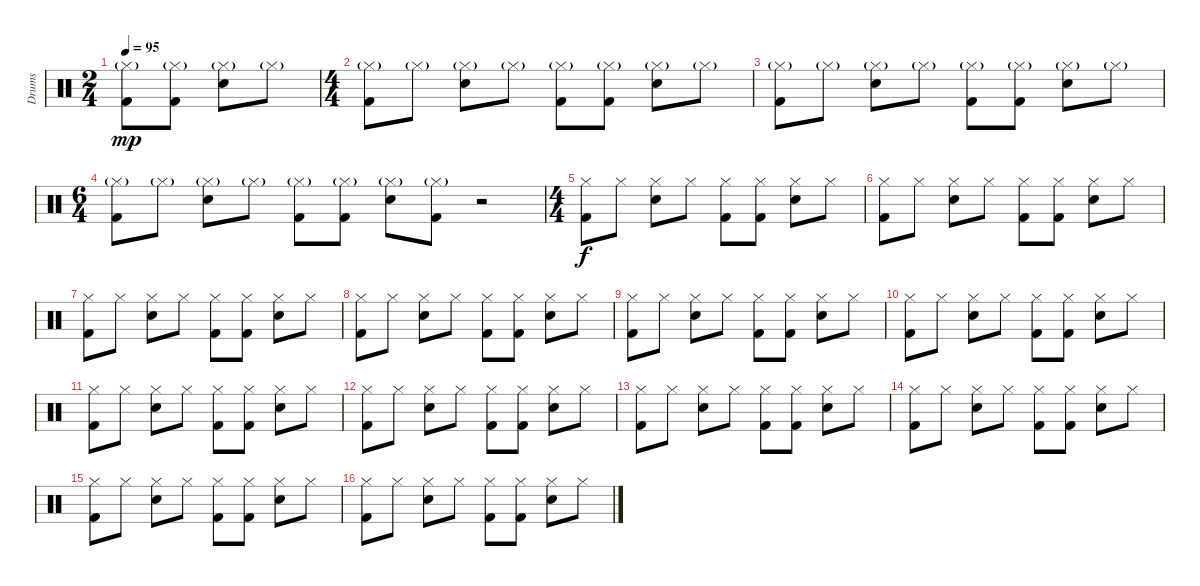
\track ("Drums" "Drums") {instrument percussion}
\staff {score}
\articulation defaults
\ts (2 4)
\tempo 95
\clef neutral
\ks c
("Hi-Hat (closed)"{g} "Kick (hit) 2").8{dy mp} ("Hi-Hat (closed)"{g} "Kick (hit) 2").8 ("Hi-Hat (closed)"{g} "Snare (hit) 2").8 "Hi-Hat (closed)"{g}.8 |
\ts (4 4)
("Hi-Hat (closed)"{g} "Kick (hit) 2").8 "Hi-Hat (closed)"{g}.8 ("Hi-Hat (closed)"{g} "Snare (hit) 2").8 "Hi-Hat (closed)"{g}.8 ("Hi-Hat (closed)"{g} "Kick (hit) 2").8 ("Hi-Hat (closed)"{g} "Kick (hit) 2").8 ("Hi-Hat (closed)"{g} "Snare (hit) 2").8 "Hi-Hat (closed)"{g}.8 |
("Hi-Hat (closed)"{g} "Kick (hit) 2").8 "Hi-Hat (closed)"{g}.8 ("Hi-Hat (closed)"{g} "Snare (hit) 2").8 "Hi-Hat (closed)"{g}.8 ("Hi-Hat (closed)"{g} "Kick (hit) 2").8 ("Hi-Hat (closed)"{g} "Kick (hit) 2").8 ("Hi-Hat (closed)"{g} "Snare (hit) 2").8 "Hi-Hat (closed)"{g}.8 |
\ts (6 4)
("Hi-Hat (closed)"{g} "Kick (hit) 2").8 "Hi-Hat (closed)"{g}.8 ("Hi-Hat (closed)"{g} "Snare (hit) 2").8 "Hi-Hat (closed)"{g}.8 ("Hi-Hat (closed)"{g} "Kick (hit) 2").8 ("Hi-Hat (closed)"{g} "Kick (hit) 2").8 ("Hi-Hat (closed)"{g} "Snare (hit) 2").8 ("Hi-Hat (closed)"{g} "Kick (hit) 2").8 r.2 |
\ts (4 4)
("Hi-Hat (closed)" "Kick (hit) 2").8{dy f} "Hi-Hat (closed)".8 ("Hi-Hat (closed)" "Snare (hit) 2").8 "Hi-Hat (closed)".8 ("Hi-Hat (closed)" "Kick (hit) 2").8 ("Hi-Hat (closed)" "Kick (hit) 2").8 ("Hi-Hat (closed)" "Snare (hit) 2").8 "Hi-Hat (closed)".8 |
("Hi-Hat (closed)" "Kick (hit) 2").8 "Hi-Hat (closed)".8 ("Hi-Hat (closed)" "Snare (hit) 2").8 "Hi-Hat (closed)".8 ("Hi-Hat (closed)" "Kick (hit) 2").8 ("Hi-Hat (closed)" "Kick (hit) 2").8 ("Hi-Hat (closed)" "Snare (hit) 2").8 "Hi-Hat (closed)".8 |
("Hi-Hat (closed)" "Kick (hit) 2").8 "Hi-Hat (closed)".8 ("Hi-Hat (closed)" "Snare (hit) 2").8 "Hi-Hat (closed)".8 ("Hi-Hat (closed)" "Kick (hit) 2").8 ("Hi-Hat (closed)" "Kick (hit) 2").8 ("Hi-Hat (closed)" "Snare (hit) 2").8 "Hi-Hat (closed)".8 |
("Hi-Hat (closed)" "Kick (hit) 2").8 "Hi-Hat (closed)".8 ("Hi-Hat (closed)" "Snare (hit) 2").8 "Hi-Hat (closed)".8 ("Hi-Hat (closed)" "Kick (hit) 2").8 ("Hi-Hat (closed)" "Kick (hit) 2").8 ("Hi-Hat (closed)" "Snare (hit) 2").8 "Hi-Hat (closed)".8 |
("Hi-Hat (closed)" "Kick (hit) 2").8 "Hi-Hat (closed)".8 ("Hi-Hat (closed)" "Snare (hit) 2").8 "Hi-Hat (closed)".8 ("Hi-Hat (closed)" "Kick (hit) 2").8 ("Hi-Hat (closed)" "Kick (hit) 2").8 ("Hi-Hat (closed)" "Snare (hit) 2").8 "Hi-Hat (closed)".8 |
("Hi-Hat (closed)" "Kick (hit) 2").8 "Hi-Hat (closed)".8 ("Hi-Hat (closed)" "Snare (hit) 2").8 "Hi-Hat (closed)".8 ("Hi-Hat (closed)" "Kick (hit) 2").8 ("Hi-Hat (closed)" "Kick (hit) 2").8 ("Hi-Hat (closed)" "Snare (hit) 2").8 "Hi-Hat (closed)".8 |
("Hi-Hat (closed)" "Kick (hit) 2").8 "Hi-Hat (closed)".8 ("Hi-Hat (closed)" "Snare (hit) 2").8 "Hi-Hat (closed)".8 ("Hi-Hat (closed)" "Kick (hit) 2").8 ("Hi-Hat (closed)" "Kick (hit) 2").8 ("Hi-Hat (closed)" "Snare (hit) 2").8 "Hi-Hat (closed)".8 |
("Hi-Hat (closed)" "Kick (hit) 2").8 "Hi-Hat (closed)".8 ("Hi-Hat (closed)" "Snare (hit) 2").8 "Hi-Hat (closed)".8 ("Hi-Hat (closed)" "Kick (hit) 2").8 ("Hi-Hat (closed)" "Kick (hit) 2").8 ("Hi-Hat (closed)" "Snare (hit) 2").8 "Hi-Hat (closed)".8 |
("Hi-Hat (closed)" "Kick (hit) 2").8 "Hi-Hat (closed)".8 ("Hi-Hat (closed)" "Snare (hit) 2").8 "Hi-Hat (closed)".8 ("Hi-Hat (closed)" "Kick (hit) 2").8 ("Hi-Hat (closed)" "Kick (hit) 2").8 ("Hi-Hat (closed)" "Snare (hit) 2").8 "Hi-Hat (closed)".8 |
("Hi-Hat (closed)" "Kick (hit) 2").8 "Hi-Hat (closed)".8 ("Hi-Hat (closed)" "Snare (hit) 2").8 "Hi-Hat (closed)".8 ("Hi-Hat (closed)" "Kick (hit) 2").8 ("Hi-Hat (closed)" "Kick (hit) 2").8 ("Hi-Hat (closed)" "Snare (hit) 2").8 "Hi-Hat (closed)".8 |
("Hi-Hat (closed)" "Kick (hit) 2").8 "Hi-Hat (closed)".8 ("Hi-Hat (closed)" "Snare (hit) 2").8 "Hi-Hat (closed)".8 ("Hi-Hat (closed)" "Kick (hit) 2").8 ("Hi-Hat (closed)" "Kick (hit) 2").8 ("Hi-Hat (closed)" "Snare (hit) 2").8 "Hi-Hat (closed)".8 |
("Hi-Hat (closed)" "Kick (hit) 2").8 "Hi-Hat (closed)".8 ("Hi-Hat (closed)" "Snare (hit) 2").8 "Hi-Hat (closed)".8 ("Hi-Hat (closed)" "Kick (hit) 2").8 ("Hi-Hat (closed)" "Kick (hit) 2").8 ("Hi-Hat (closed)" "Snare (hit) 2").8 "Hi-Hat (closed)".8
